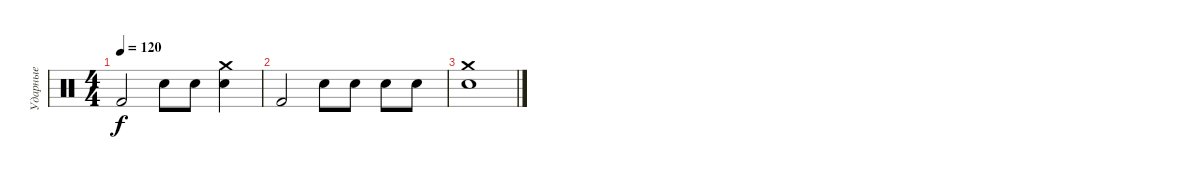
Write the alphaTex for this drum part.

\track ("Ударные" "Ударные") {instrument percussion}
\staff {score}
\articulation defaults
\ts (4 4)
\tempo 120
\clef neutral
\ks c "Kick (hit) 2".2{dy f} "Snare (hit) 2".8 "Snare (hit) 2".8
("Crash medium (hit)" "Snare (hit) 2").4 |
"Kick (hit) 2".2 "Snare (hit) 2".8 "Snare (hit) 2".8 "Snare (hit) 2".8 "Snare (hit) 2".8 |
("Crash medium (hit)" "Snare (hit) 2").1
